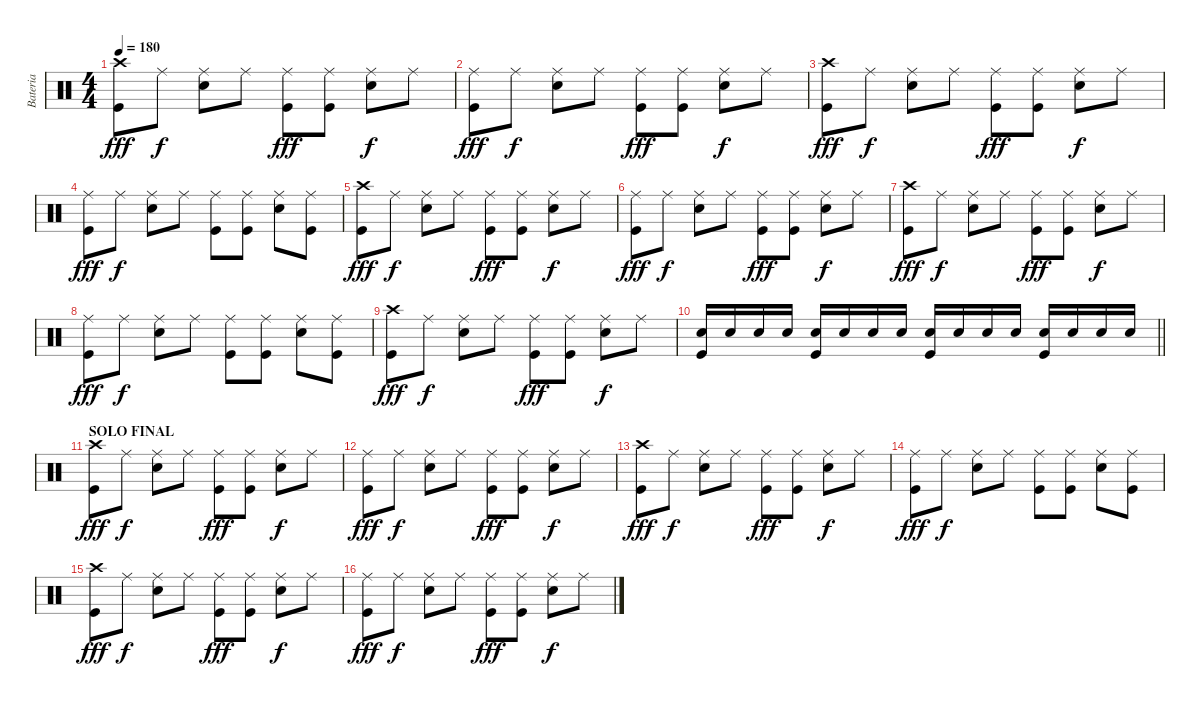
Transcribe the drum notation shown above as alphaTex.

\track ("Bateria" "Bateria") {instrument percussion}
\staff {score}
\articulation defaults
\ts (4 4)
\tempo 180
\clef neutral
\ks c
("Crash high (hit)" "Kick (hit)").8{dy fff} "Ride (middle)".8{dy f} ("Ride (middle)" "Snare (hit) 2").8 "Ride (middle)".8 ("Ride (middle)" "Kick (hit)").8{dy fff} ("Ride (middle)" "Kick (hit)").8 ("Ride (middle)" "Snare (hit) 2").8{dy f} "Ride (middle)".8 |
("Ride (middle)" "Kick (hit)").8{dy fff} "Ride (middle)".8{dy f} ("Ride (middle)" "Snare (hit) 2").8 "Ride (middle)".8 ("Ride (middle)" "Kick (hit)").8{dy fff} ("Ride (middle)" "Kick (hit)").8 ("Ride (middle)" "Snare (hit) 2").8{dy f} "Ride (middle)".8 |
("Crash high (hit)" "Kick (hit)").8{dy fff} "Ride (middle)".8{dy f} ("Ride (middle)" "Snare (hit) 2").8 "Ride (middle)".8 ("Ride (middle)" "Kick (hit)").8{dy fff} ("Ride (middle)" "Kick (hit)").8 ("Ride (middle)" "Snare (hit) 2").8{dy f} "Ride (middle)".8 |
("Ride (middle)" "Kick (hit)").8{dy fff} "Ride (middle)".8{dy f} ("Ride (middle)" "Snare (hit) 2").8 "Ride (middle)".8 ("Ride (middle)" "Kick (hit)").8 ("Ride (middle)" "Kick (hit)").8 ("Ride (middle)" "Snare (hit) 2").8 ("Ride (middle)" "Kick (hit)").8 |
("Crash high (hit)" "Kick (hit)").8{dy fff} "Ride (middle)".8{dy f} ("Ride (middle)" "Snare (hit) 2").8 "Ride (middle)".8 ("Ride (middle)" "Kick (hit)").8{dy fff} ("Ride (middle)" "Kick (hit)").8 ("Ride (middle)" "Snare (hit) 2").8{dy f} "Ride (middle)".8 |
("Ride (middle)" "Kick (hit)").8{dy fff} "Ride (middle)".8{dy f} ("Ride (middle)" "Snare (hit) 2").8 "Ride (middle)".8 ("Ride (middle)" "Kick (hit)").8{dy fff} ("Ride (middle)" "Kick (hit)").8 ("Ride (middle)" "Snare (hit) 2").8{dy f} "Ride (middle)".8 |
("Crash high (hit)" "Kick (hit)").8{dy fff} "Ride (middle)".8{dy f} ("Ride (middle)" "Snare (hit) 2").8 "Ride (middle)".8 ("Ride (middle)" "Kick (hit)").8{dy fff} ("Ride (middle)" "Kick (hit)").8 ("Ride (middle)" "Snare (hit) 2").8{dy f} "Ride (middle)".8 |
("Ride (middle)" "Kick (hit)").8{dy fff} "Ride (middle)".8{dy f} ("Ride (middle)" "Snare (hit) 2").8 "Ride (middle)".8 ("Ride (middle)" "Kick (hit)").8 ("Ride (middle)" "Kick (hit)").8 ("Ride (middle)" "Snare (hit) 2").8 ("Ride (middle)" "Kick (hit)").8 |
("Crash high (hit)" "Kick (hit)").8{dy fff} "Ride (middle)".8{dy f} ("Ride (middle)" "Snare (hit) 2").8 "Ride (middle)".8 ("Ride (middle)" "Kick (hit)").8{dy fff} ("Ride (middle)" "Kick (hit)").8 ("Ride (middle)" "Snare (hit) 2").8{dy f} "Ride (middle)".8 |
\barLineRight lightlight
("Snare (hit) 2" "Kick (hit)").16 "Snare (hit) 2".16 "Snare (hit) 2".16 "Snare (hit) 2".16 ("Snare (hit) 2" "Kick (hit)").16 "Snare (hit) 2".16 "Snare (hit) 2".16 "Snare (hit) 2".16 ("Snare (hit) 2" "Kick (hit)").16 "Snare (hit) 2".16 "Snare (hit) 2".16 "Snare (hit) 2".16 ("Snare (hit) 2" "Kick (hit)").16 "Snare (hit) 2".16 "Snare (hit) 2".16 "Snare (hit) 2".16 |
\section ("" "SOLO FINAL")
("Crash high (hit)" "Kick (hit)").8{dy fff} "Ride (middle)".8{dy f} ("Ride (middle)" "Snare (hit) 2").8 "Ride (middle)".8 ("Ride (middle)" "Kick (hit)").8{dy fff} ("Ride (middle)" "Kick (hit)").8 ("Ride (middle)" "Snare (hit) 2").8{dy f} "Ride (middle)".8 |
("Ride (middle)" "Kick (hit)").8{dy fff} "Ride (middle)".8{dy f} ("Ride (middle)" "Snare (hit) 2").8 "Ride (middle)".8 ("Ride (middle)" "Kick (hit)").8{dy fff} ("Ride (middle)" "Kick (hit)").8 ("Ride (middle)" "Snare (hit) 2").8{dy f} "Ride (middle)".8 |
("Crash high (hit)" "Kick (hit)").8{dy fff} "Ride (middle)".8{dy f} ("Ride (middle)" "Snare (hit) 2").8 "Ride (middle)".8 ("Ride (middle)" "Kick (hit)").8{dy fff} ("Ride (middle)" "Kick (hit)").8 ("Ride (middle)" "Snare (hit) 2").8{dy f} "Ride (middle)".8 |
("Ride (middle)" "Kick (hit)").8{dy fff} "Ride (middle)".8{dy f} ("Ride (middle)" "Snare (hit) 2").8 "Ride (middle)".8 ("Ride (middle)" "Kick (hit)").8 ("Ride (middle)" "Kick (hit)").8 ("Ride (middle)" "Snare (hit) 2").8 ("Ride (middle)" "Kick (hit)").8 |
("Crash high (hit)" "Kick (hit)").8{dy fff} "Ride (middle)".8{dy f} ("Ride (middle)" "Snare (hit) 2").8 "Ride (middle)".8 ("Ride (middle)" "Kick (hit)").8{dy fff} ("Ride (middle)" "Kick (hit)").8 ("Ride (middle)" "Snare (hit) 2").8{dy f} "Ride (middle)".8 |
("Ride (middle)" "Kick (hit)").8{dy fff} "Ride (middle)".8{dy f} ("Ride (middle)" "Snare (hit) 2").8 "Ride (middle)".8 ("Ride (middle)" "Kick (hit)").8{dy fff} ("Ride (middle)" "Kick (hit)").8 ("Ride (middle)" "Snare (hit) 2").8{dy f} "Ride (middle)".8
